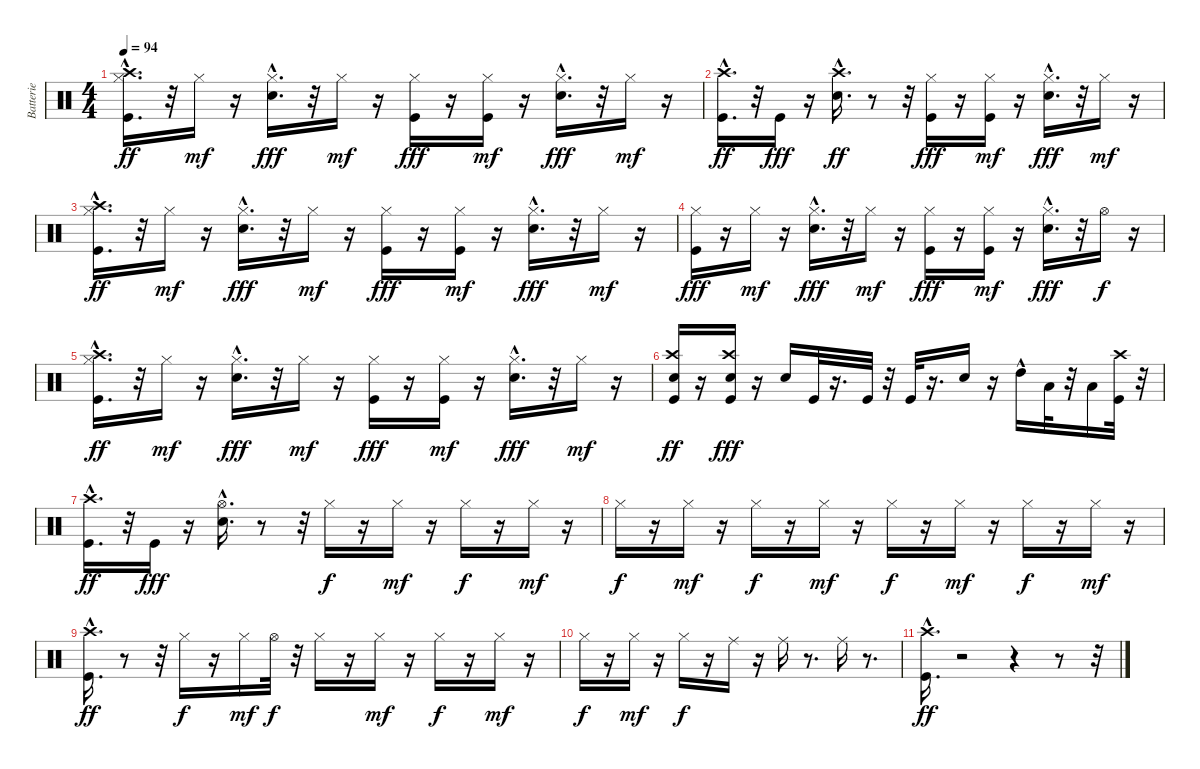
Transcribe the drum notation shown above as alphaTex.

\track ("Batterie" "Batterie") {instrument percussion}
\staff {score}
\articulation defaults
\ts (4 4)
\tempo 94
\clef neutral
\ks c
("Kick (hit)" "Hi-Hat (closed)" "Crash high (hit)"{hac}).16{d dy ff} r.32 "Hi-Hat (closed)".16{dy mf} r.16 ("Snare (hit) 2"{hac} "Hi-Hat (closed)").16{d dy fff} r.32 "Hi-Hat (closed)".16{dy mf} r.16 ("Kick (hit)" "Hi-Hat (closed)").16{dy fff} r.16 ("Kick (hit)" "Hi-Hat (closed)").16{dy mf} r.16 ("Snare (hit) 2"{hac} "Hi-Hat (closed)").16{d dy fff} r.32 "Hi-Hat (closed)".16{dy mf} r.16 |
("Kick (hit)" "Crash high (hit)"{hac}).16{d dy ff} r.32 "Kick (hit)".16{dy fff} r.16 ("Snare (hit) 2"{hac} "Crash high (hit)"{hac}).16{d dy ff} r.8 r.32 ("Kick (hit)" "Hi-Hat (closed)").16{dy fff} r.16 ("Kick (hit)" "Hi-Hat (closed)").16{dy mf} r.16 ("Snare (hit) 2"{hac} "Hi-Hat (closed)").16{d dy fff} r.32 "Hi-Hat (closed)".16{dy mf} r.16 |
("Kick (hit)" "Hi-Hat (closed)" "Crash high (hit)"{hac}).16{d dy ff} r.32 "Hi-Hat (closed)".16{dy mf} r.16 ("Snare (hit) 2"{hac} "Hi-Hat (closed)").16{d dy fff} r.32 "Hi-Hat (closed)".16{dy mf} r.16 ("Kick (hit)" "Hi-Hat (closed)").16{dy fff} r.16 ("Kick (hit)" "Hi-Hat (closed)").16{dy mf} r.16 ("Snare (hit) 2"{hac} "Hi-Hat (closed)").16{d dy fff} r.32 "Hi-Hat (closed)".16{dy mf} r.16 |
("Kick (hit)" "Hi-Hat (closed)").16{dy fff} r.16 "Hi-Hat (closed)".16{dy mf} r.16 ("Snare (hit) 2"{hac} "Hi-Hat (closed)").16{d dy fff} r.32 "Hi-Hat (closed)".16{dy mf} r.16 ("Kick (hit)" "Hi-Hat (closed)").16{dy fff} r.16 ("Kick (hit)" "Hi-Hat (closed)").16{dy mf} r.16 ("Snare (hit) 2"{hac} "Hi-Hat (closed)").16{d dy fff} r.32 "Hi-Hat (open)".16{dy f} r.16 |
("Kick (hit)" "Hi-Hat (closed)" "Crash high (hit)"{hac}).16{d dy ff} r.32 "Hi-Hat (closed)".16{dy mf} r.16 ("Snare (hit) 2"{hac} "Hi-Hat (closed)").16{d dy fff} r.32 "Hi-Hat (closed)".16{dy mf} r.16 ("Kick (hit)" "Hi-Hat (closed)").16{dy fff} r.16 ("Kick (hit)" "Hi-Hat (closed)").16{dy mf} r.16 ("Snare (hit) 2"{hac} "Hi-Hat (closed)").16{d dy fff} r.32 "Hi-Hat (closed)".16{dy mf} r.16 |
("Kick (hit)" "Snare (hit) 2" "Crash high (hit)").16{dy ff} r.16 ("Kick (hit)" "Snare (hit) 2" "Crash high (hit)").16{dy fff} r.16 "Snare (hit) 2".16 "Kick (hit)".32 r.16{d} "Kick (hit)".32 r.32 "Kick (hit)".32 r.16{d} "Snare (hit) 2".16 r.16 "High Tom (hit)"{hac}.16 "Low Tom (hit)".32 r.32 "Low Floor Tom (hit)".16 ("Kick (hit)" "Crash high (hit)").32 r.32 |
("Kick (hit)" "Crash high (hit)"{hac}).16{d dy ff} r.32 "Kick (hit)".16{dy fff} r.16 ("Snare (hit) 2"{hac} "Hi-Hat (open)"{hac}).16{d} r.8 r.32 "Hi-Hat (closed)".16{dy f} r.16 "Hi-Hat (closed)".16{dy mf} r.16 "Hi-Hat (closed)".16{dy f} r.16 "Hi-Hat (closed)".16{dy mf} r.16 |
"Hi-Hat (closed)".16{dy f} r.16 "Hi-Hat (closed)".16{dy mf} r.16 "Hi-Hat (closed)".16{dy f} r.16 "Hi-Hat (closed)".16{dy mf} r.16 "Hi-Hat (closed)".16{dy f} r.16 "Hi-Hat (closed)".16{dy mf} r.16 "Hi-Hat (closed)".16{dy f} r.16 "Hi-Hat (closed)".16{dy mf} r.16 |
("Kick (hit)"{hac} "Crash high (hit)"{hac}).16{d dy ff} r.8 r.32 "Hi-Hat (closed)".16{dy f} r.16 "Hi-Hat (closed)".16{dy mf} "Hi-Hat (open)".32{dy f} r.32 "Hi-Hat (closed)".16 r.16 "Hi-Hat (closed)".16{dy mf} r.16 "Hi-Hat (closed)".16{dy f} r.16 "Hi-Hat (closed)".16{dy mf} r.16 |
"Hi-Hat (closed)".16{dy f} r.16 "Hi-Hat (closed)".16{dy mf} r.16 "Hi-Hat (closed)".16{dy f} r.16 "Ride (middle)".16 r.16 "Ride (middle)".16 r.8{d} "Ride (middle)".16 r.8{d} |
("Kick (hit)"{hac} "Crash high (hit)"{hac}).16{d dy ff} r.2 r.4 r.8 r.32
